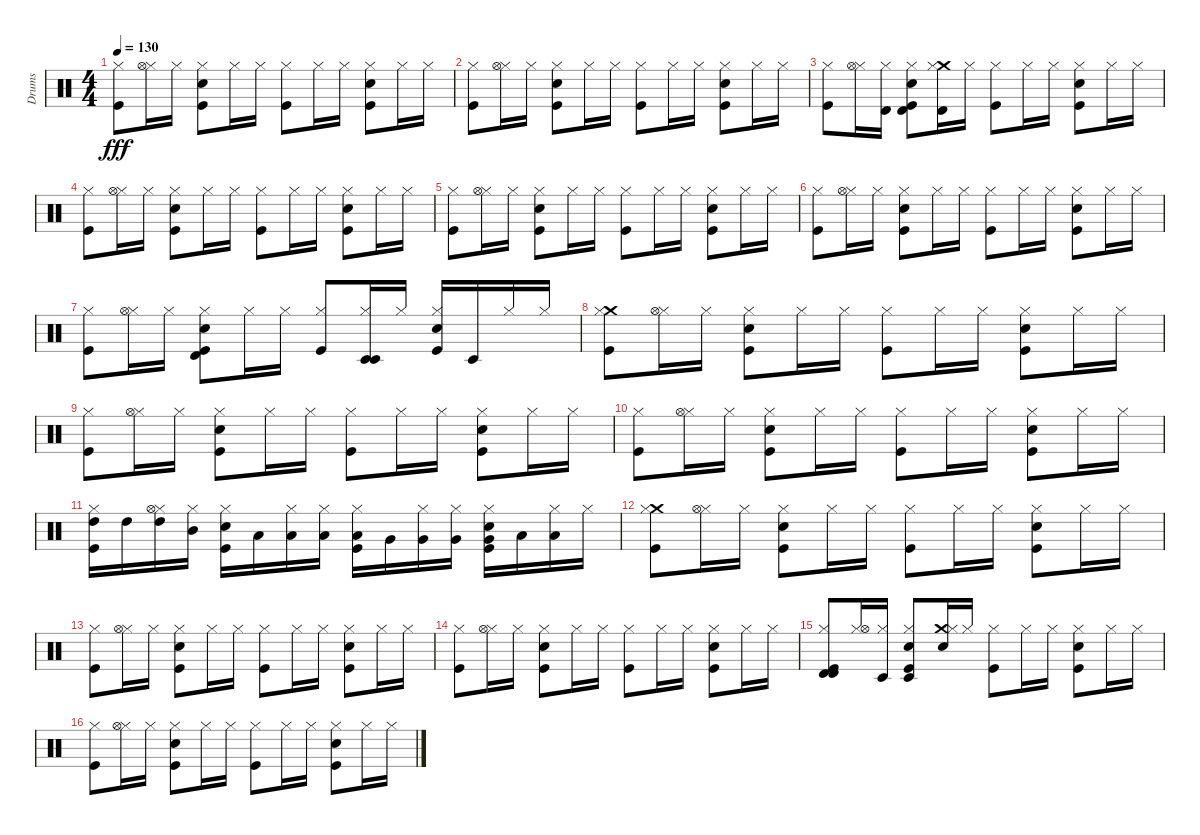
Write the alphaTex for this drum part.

\track ("Drums" "Drums") {instrument percussion}
\staff {score}
\articulation defaults
\ts (4 4)
\tempo 130
\clef neutral
\ks c
("Kick (hit)" "Hi-Hat (closed)").8{dy fff} ("Hi-Hat (closed)" "Hi-Hat (open)").16 "Hi-Hat (closed)".16 ("Kick (hit)" "Electric Snare (hit)" "Hi-Hat (closed)").8 "Hi-Hat (closed)".16 "Hi-Hat (closed)".16 ("Kick (hit)" "Hi-Hat (closed)").8 "Hi-Hat (closed)".16 "Hi-Hat (closed)".16 ("Kick (hit)" "Electric Snare (hit)" "Hi-Hat (closed)").8 "Hi-Hat (closed)".16 "Hi-Hat (closed)".16 |
("Kick (hit)" "Hi-Hat (closed)").8 ("Hi-Hat (closed)" "Hi-Hat (open)").16 "Hi-Hat (closed)".16 ("Kick (hit)" "Electric Snare (hit)" "Hi-Hat (closed)").8 "Hi-Hat (closed)".16 "Hi-Hat (closed)".16 ("Kick (hit)" "Hi-Hat (closed)").8 "Hi-Hat (closed)".16 "Hi-Hat (closed)".16 ("Kick (hit)" "Electric Snare (hit)" "Hi-Hat (closed)").8 "Hi-Hat (closed)".16 "Hi-Hat (closed)".16 |
("Kick (hit)" "Hi-Hat (closed)").8 ("Hi-Hat (closed)" "Hi-Hat (open)").16 ("Hi-Hat (closed)" "Timbale high (hit)").16 ("Kick (hit)" "Electric Snare (hit)" "Hi-Hat (closed)" "Timbale high (hit)").8 ("Crash medium (hit)" "Hi-Hat (closed)" "Timbale high (hit)").16 "Hi-Hat (closed)".16 ("Kick (hit)" "Hi-Hat (closed)").8 "Hi-Hat (closed)".16 "Hi-Hat (closed)".16 ("Kick (hit)" "Electric Snare (hit)" "Hi-Hat (closed)").8 "Hi-Hat (closed)".16 "Hi-Hat (closed)".16 |
("Kick (hit)" "Hi-Hat (closed)").8 ("Hi-Hat (closed)" "Hi-Hat (open)").16 "Hi-Hat (closed)".16 ("Kick (hit)" "Electric Snare (hit)" "Hi-Hat (closed)").8 "Hi-Hat (closed)".16 "Hi-Hat (closed)".16 ("Kick (hit)" "Hi-Hat (closed)").8 "Hi-Hat (closed)".16 "Hi-Hat (closed)".16 ("Kick (hit)" "Electric Snare (hit)" "Hi-Hat (closed)").8 "Hi-Hat (closed)".16 "Hi-Hat (closed)".16 |
("Kick (hit)" "Hi-Hat (closed)").8 ("Hi-Hat (closed)" "Hi-Hat (open)").16 "Hi-Hat (closed)".16 ("Kick (hit)" "Electric Snare (hit)" "Hi-Hat (closed)").8 "Hi-Hat (closed)".16 "Hi-Hat (closed)".16 ("Kick (hit)" "Hi-Hat (closed)").8 "Hi-Hat (closed)".16 "Hi-Hat (closed)".16 ("Kick (hit)" "Electric Snare (hit)" "Hi-Hat (closed)").8 "Hi-Hat (closed)".16 "Hi-Hat (closed)".16 |
("Kick (hit)" "Hi-Hat (closed)").8 ("Hi-Hat (closed)" "Hi-Hat (open)").16 "Hi-Hat (closed)".16 ("Kick (hit)" "Electric Snare (hit)" "Hi-Hat (closed)").8 "Hi-Hat (closed)".16 "Hi-Hat (closed)".16 ("Kick (hit)" "Hi-Hat (closed)").8 "Hi-Hat (closed)".16 "Hi-Hat (closed)".16 ("Kick (hit)" "Electric Snare (hit)" "Hi-Hat (closed)").8 "Hi-Hat (closed)".16 "Hi-Hat (closed)".16 |
("Kick (hit)" "Hi-Hat (closed)").8 ("Hi-Hat (closed)" "Hi-Hat (open)").16 "Hi-Hat (closed)".16 ("Kick (hit)" "Electric Snare (hit)" "Hi-Hat (closed)" "Timbale high (hit)").8 "Hi-Hat (closed)".16 "Hi-Hat (closed)".16 ("Kick (hit)" "Hi-Hat (closed)").8 ("Hi-Hat (closed)" "Timbale low (hit)" "Timbale low (hit)").16 "Hi-Hat (closed)".16 ("Kick (hit)" "Electric Snare (hit)" "Hi-Hat (closed)").16 "Timbale low (hit)".16 "Hi-Hat (closed)".16 "Hi-Hat (closed)".16 |
("Crash medium (hit)" "Kick (hit)" "Hi-Hat (closed)").8 ("Hi-Hat (closed)" "Hi-Hat (open)").16 "Hi-Hat (closed)".16 ("Kick (hit)" "Electric Snare (hit)" "Hi-Hat (closed)").8 "Hi-Hat (closed)".16 "Hi-Hat (closed)".16 ("Kick (hit)" "Hi-Hat (closed)").8 "Hi-Hat (closed)".16 "Hi-Hat (closed)".16 ("Kick (hit)" "Electric Snare (hit)" "Hi-Hat (closed)").8 "Hi-Hat (closed)".16 "Hi-Hat (closed)".16 |
("Kick (hit)" "Hi-Hat (closed)").8 ("Hi-Hat (closed)" "Hi-Hat (open)").16 "Hi-Hat (closed)".16 ("Kick (hit)" "Electric Snare (hit)" "Hi-Hat (closed)").8 "Hi-Hat (closed)".16 "Hi-Hat (closed)".16 ("Kick (hit)" "Hi-Hat (closed)").8 "Hi-Hat (closed)".16 "Hi-Hat (closed)".16 ("Kick (hit)" "Electric Snare (hit)" "Hi-Hat (closed)").8 "Hi-Hat (closed)".16 "Hi-Hat (closed)".16 |
("Kick (hit)" "Hi-Hat (closed)").8 ("Hi-Hat (closed)" "Hi-Hat (open)").16 "Hi-Hat (closed)".16 ("Kick (hit)" "Electric Snare (hit)" "Hi-Hat (closed)").8 "Hi-Hat (closed)".16 "Hi-Hat (closed)".16 ("Kick (hit)" "Hi-Hat (closed)").8 "Hi-Hat (closed)".16 "Hi-Hat (closed)".16 ("Kick (hit)" "Electric Snare (hit)" "Hi-Hat (closed)").8 "Hi-Hat (closed)".16 "Hi-Hat (closed)".16 |
("Kick (hit)" "Hi-Hat (closed)" "High Tom (hit)").16 "High Tom (hit)".16 ("Hi-Hat (closed)" "Hi-Hat (open)" "High Tom (hit)").16 ("Hi-Hat (closed)" "Mid Tom (hit)").16 ("Kick (hit)" "Electric Snare (hit)" "Hi-Hat (closed)").16 "Low Tom (hit)".16 ("Hi-Hat (closed)" "Low Tom (hit)").16 ("Hi-Hat (closed)" "Low Tom (hit)").16 ("Kick (hit)" "Hi-Hat (closed)" "Low Tom (hit)").16 "Very Low Tom (hit)".16 ("Hi-Hat (closed)" "Very Low Tom (hit)").16 ("Hi-Hat (closed)" "Very Low Tom (hit)").16 ("Kick (hit)" "Electric Snare (hit)" "Hi-Hat (closed)" "Very Low Tom (hit)").16 "Low Floor Tom (hit)".16 ("Low Floor Tom (hit)" "Hi-Hat (closed)").16 "Hi-Hat (closed)".16 |
("Crash medium (hit)" "Kick (hit)" "Hi-Hat (closed)").8 ("Hi-Hat (closed)" "Hi-Hat (open)").16 "Hi-Hat (closed)".16 ("Kick (hit)" "Electric Snare (hit)" "Hi-Hat (closed)").8 "Hi-Hat (closed)".16 "Hi-Hat (closed)".16 ("Kick (hit)" "Hi-Hat (closed)").8 "Hi-Hat (closed)".16 "Hi-Hat (closed)".16 ("Kick (hit)" "Electric Snare (hit)" "Hi-Hat (closed)").8 "Hi-Hat (closed)".16 "Hi-Hat (closed)".16 |
("Kick (hit)" "Hi-Hat (closed)").8 ("Hi-Hat (closed)" "Hi-Hat (open)").16 "Hi-Hat (closed)".16 ("Kick (hit)" "Electric Snare (hit)" "Hi-Hat (closed)").8 "Hi-Hat (closed)".16 "Hi-Hat (closed)".16 ("Kick (hit)" "Hi-Hat (closed)").8 "Hi-Hat (closed)".16 "Hi-Hat (closed)".16 ("Kick (hit)" "Electric Snare (hit)" "Hi-Hat (closed)").8 "Hi-Hat (closed)".16 "Hi-Hat (closed)".16 |
("Kick (hit)" "Hi-Hat (closed)").8 ("Hi-Hat (closed)" "Hi-Hat (open)").16 "Hi-Hat (closed)".16 ("Kick (hit)" "Electric Snare (hit)" "Hi-Hat (closed)").8 "Hi-Hat (closed)".16 "Hi-Hat (closed)".16 ("Kick (hit)" "Hi-Hat (closed)").8 "Hi-Hat (closed)".16 "Hi-Hat (closed)".16 ("Kick (hit)" "Electric Snare (hit)" "Hi-Hat (closed)").8 "Hi-Hat (closed)".16 "Hi-Hat (closed)".16 |
("Kick (hit)" "Hi-Hat (closed)" "Timbale high (hit)" "Timbale high (hit)").8 ("Hi-Hat (closed)" "Hi-Hat (open)").16 ("Hi-Hat (closed)" "Timbale low (hit)").16 ("Kick (hit)" "Electric Snare (hit)" "Hi-Hat (closed)" "Timbale low (hit)").8 ("Crash medium (hit)" "Electric Snare (hit)" "Hi-Hat (closed)").16 "Hi-Hat (closed)".16 ("Kick (hit)" "Hi-Hat (closed)").8 "Hi-Hat (closed)".16 "Hi-Hat (closed)".16 ("Kick (hit)" "Electric Snare (hit)" "Hi-Hat (closed)").8 "Hi-Hat (closed)".16 "Hi-Hat (closed)".16 |
("Kick (hit)" "Hi-Hat (closed)").8 ("Hi-Hat (closed)" "Hi-Hat (open)").16 "Hi-Hat (closed)".16 ("Kick (hit)" "Electric Snare (hit)" "Hi-Hat (closed)").8 "Hi-Hat (closed)".16 "Hi-Hat (closed)".16 ("Kick (hit)" "Hi-Hat (closed)").8 "Hi-Hat (closed)".16 "Hi-Hat (closed)".16 ("Kick (hit)" "Electric Snare (hit)" "Hi-Hat (closed)").8 "Hi-Hat (closed)".16 "Hi-Hat (closed)".16
